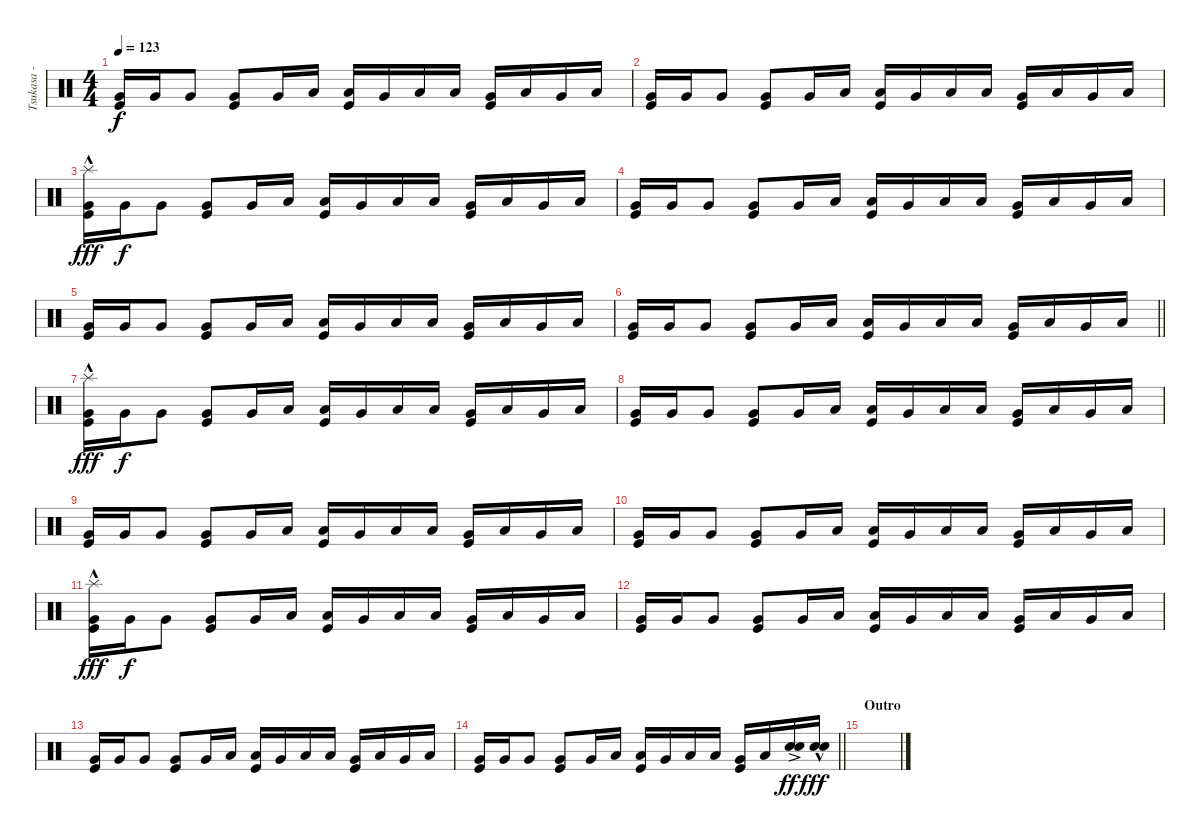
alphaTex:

\track ("Tsukasa - Drums" "Tsukasa - ") {instrument percussion}
\staff {score}
\articulation defaults
\ts (4 4)
\tempo 123
\clef neutral
\ks c
("Very Low Tom (hit)" "Kick (hit)").16{dy f} "Very Low Tom (hit)".16 "Very Low Tom (hit)".8 ("Very Low Tom (hit)" "Kick (hit)").8 "Very Low Tom (hit)".16 "Low Tom (hit)".16 ("Low Tom (hit)" "Kick (hit)").16 "Very Low Tom (hit)".16 "Low Floor Tom (hit)".16 "Low Floor Tom (hit)".16 ("Very Low Tom (hit)" "Kick (hit)").16 "Low Floor Tom (hit)".16 "Very Low Tom (hit)".16 "Low Floor Tom (hit)".16 |
("Very Low Tom (hit)" "Kick (hit)").16 "Very Low Tom (hit)".16 "Very Low Tom (hit)".8 ("Very Low Tom (hit)" "Kick (hit)").8 "Very Low Tom (hit)".16 "Low Tom (hit)".16 ("Low Tom (hit)" "Kick (hit)").16 "Very Low Tom (hit)".16 "Low Floor Tom (hit)".16 "Low Floor Tom (hit)".16 ("Very Low Tom (hit)" "Kick (hit)").16 "Low Floor Tom (hit)".16 "Very Low Tom (hit)".16 "Low Floor Tom (hit)".16 |
("Splash (hit)"{hac} "Very Low Tom (hit)" "Kick (hit)").16{dy fff} "Very Low Tom (hit)".16{dy f} "Very Low Tom (hit)".8 ("Very Low Tom (hit)" "Kick (hit)").8 "Very Low Tom (hit)".16 "Low Tom (hit)".16 ("Low Tom (hit)" "Kick (hit)").16 "Very Low Tom (hit)".16 "Low Floor Tom (hit)".16 "Low Floor Tom (hit)".16 ("Very Low Tom (hit)" "Kick (hit)").16 "Low Floor Tom (hit)".16 "Very Low Tom (hit)".16 "Low Floor Tom (hit)".16 |
("Very Low Tom (hit)" "Kick (hit)").16 "Very Low Tom (hit)".16 "Very Low Tom (hit)".8 ("Very Low Tom (hit)" "Kick (hit)").8 "Very Low Tom (hit)".16 "Low Tom (hit)".16 ("Low Tom (hit)" "Kick (hit)").16 "Very Low Tom (hit)".16 "Low Floor Tom (hit)".16 "Low Floor Tom (hit)".16 ("Very Low Tom (hit)" "Kick (hit)").16 "Low Floor Tom (hit)".16 "Very Low Tom (hit)".16 "Low Floor Tom (hit)".16 |
("Very Low Tom (hit)" "Kick (hit)").16 "Very Low Tom (hit)".16 "Very Low Tom (hit)".8 ("Very Low Tom (hit)" "Kick (hit)").8 "Very Low Tom (hit)".16 "Low Tom (hit)".16 ("Low Tom (hit)" "Kick (hit)").16 "Very Low Tom (hit)".16 "Low Floor Tom (hit)".16 "Low Floor Tom (hit)".16 ("Very Low Tom (hit)" "Kick (hit)").16 "Low Floor Tom (hit)".16 "Very Low Tom (hit)".16 "Low Floor Tom (hit)".16 |
\barLineRight lightlight
("Very Low Tom (hit)" "Kick (hit)").16 "Very Low Tom (hit)".16 "Very Low Tom (hit)".8 ("Very Low Tom (hit)" "Kick (hit)").8 "Very Low Tom (hit)".16 "Low Tom (hit)".16 ("Low Tom (hit)" "Kick (hit)").16 "Very Low Tom (hit)".16 "Low Floor Tom (hit)".16 "Low Floor Tom (hit)".16 ("Very Low Tom (hit)" "Kick (hit)").16 "Low Floor Tom (hit)".16 "Very Low Tom (hit)".16 "Low Floor Tom (hit)".16 |
\section ("" "")
("Splash (hit)"{hac} "Very Low Tom (hit)" "Kick (hit)").16{dy fff} "Very Low Tom (hit)".16{dy f} "Very Low Tom (hit)".8 ("Very Low Tom (hit)" "Kick (hit)").8 "Very Low Tom (hit)".16 "Low Tom (hit)".16 ("Low Tom (hit)" "Kick (hit)").16 "Very Low Tom (hit)".16 "Low Floor Tom (hit)".16 "Low Floor Tom (hit)".16 ("Very Low Tom (hit)" "Kick (hit)").16 "Low Floor Tom (hit)".16 "Very Low Tom (hit)".16 "Low Floor Tom (hit)".16 |
("Very Low Tom (hit)" "Kick (hit)").16 "Very Low Tom (hit)".16 "Very Low Tom (hit)".8 ("Very Low Tom (hit)" "Kick (hit)").8 "Very Low Tom (hit)".16 "Low Tom (hit)".16 ("Low Tom (hit)" "Kick (hit)").16 "Very Low Tom (hit)".16 "Low Floor Tom (hit)".16 "Low Floor Tom (hit)".16 ("Very Low Tom (hit)" "Kick (hit)").16 "Low Floor Tom (hit)".16 "Very Low Tom (hit)".16 "Low Floor Tom (hit)".16 |
("Very Low Tom (hit)" "Kick (hit)").16 "Very Low Tom (hit)".16 "Very Low Tom (hit)".8 ("Very Low Tom (hit)" "Kick (hit)").8 "Very Low Tom (hit)".16 "Low Tom (hit)".16 ("Low Tom (hit)" "Kick (hit)").16 "Very Low Tom (hit)".16 "Low Floor Tom (hit)".16 "Low Floor Tom (hit)".16 ("Very Low Tom (hit)" "Kick (hit)").16 "Low Floor Tom (hit)".16 "Very Low Tom (hit)".16 "Low Floor Tom (hit)".16 |
("Very Low Tom (hit)" "Kick (hit)").16 "Very Low Tom (hit)".16 "Very Low Tom (hit)".8 ("Very Low Tom (hit)" "Kick (hit)").8 "Very Low Tom (hit)".16 "Low Tom (hit)".16 ("Low Tom (hit)" "Kick (hit)").16 "Very Low Tom (hit)".16 "Low Floor Tom (hit)".16 "Low Floor Tom (hit)".16 ("Very Low Tom (hit)" "Kick (hit)").16 "Low Floor Tom (hit)".16 "Very Low Tom (hit)".16 "Low Floor Tom (hit)".16 |
("Splash (hit)"{hac} "Very Low Tom (hit)" "Kick (hit)").16{dy fff} "Very Low Tom (hit)".16{dy f} "Very Low Tom (hit)".8 ("Very Low Tom (hit)" "Kick (hit)").8 "Very Low Tom (hit)".16 "Low Tom (hit)".16 ("Low Tom (hit)" "Kick (hit)").16 "Very Low Tom (hit)".16 "Low Floor Tom (hit)".16 "Low Floor Tom (hit)".16 ("Very Low Tom (hit)" "Kick (hit)").16 "Low Floor Tom (hit)".16 "Very Low Tom (hit)".16 "Low Floor Tom (hit)".16 |
("Very Low Tom (hit)" "Kick (hit)").16 "Very Low Tom (hit)".16 "Very Low Tom (hit)".8 ("Very Low Tom (hit)" "Kick (hit)").8 "Very Low Tom (hit)".16 "Low Tom (hit)".16 ("Low Tom (hit)" "Kick (hit)").16 "Very Low Tom (hit)".16 "Low Floor Tom (hit)".16 "Low Floor Tom (hit)".16 ("Very Low Tom (hit)" "Kick (hit)").16 "Low Floor Tom (hit)".16 "Very Low Tom (hit)".16 "Low Floor Tom (hit)".16 |
("Very Low Tom (hit)" "Kick (hit)").16 "Very Low Tom (hit)".16 "Very Low Tom (hit)".8 ("Very Low Tom (hit)" "Kick (hit)").8 "Very Low Tom (hit)".16 "Low Tom (hit)".16 ("Low Tom (hit)" "Kick (hit)").16 "Very Low Tom (hit)".16 "Low Floor Tom (hit)".16 "Low Floor Tom (hit)".16 ("Very Low Tom (hit)" "Kick (hit)").16 "Low Floor Tom (hit)".16 "Very Low Tom (hit)".16 "Low Floor Tom (hit)".16 |
\barLineRight lightlight
("Very Low Tom (hit)" "Kick (hit)").16 "Very Low Tom (hit)".16 "Very Low Tom (hit)".8 ("Very Low Tom (hit)" "Kick (hit)").8 "Very Low Tom (hit)".16 "Low Tom (hit)".16 ("Low Tom (hit)" "Kick (hit)").16 "Very Low Tom (hit)".16 "Low Floor Tom (hit)".16 "Low Floor Tom (hit)".16 ("Very Low Tom (hit)" "Kick (hit)").16 "Low Floor Tom (hit)".16 ("Electric Snare (hit)"{ac} "Snare (hit) 2").16{dy ff} ("Electric Snare (hit)"{hac} "Snare (hit) 2").16{dy fff} |
\section ("" "Outro")
